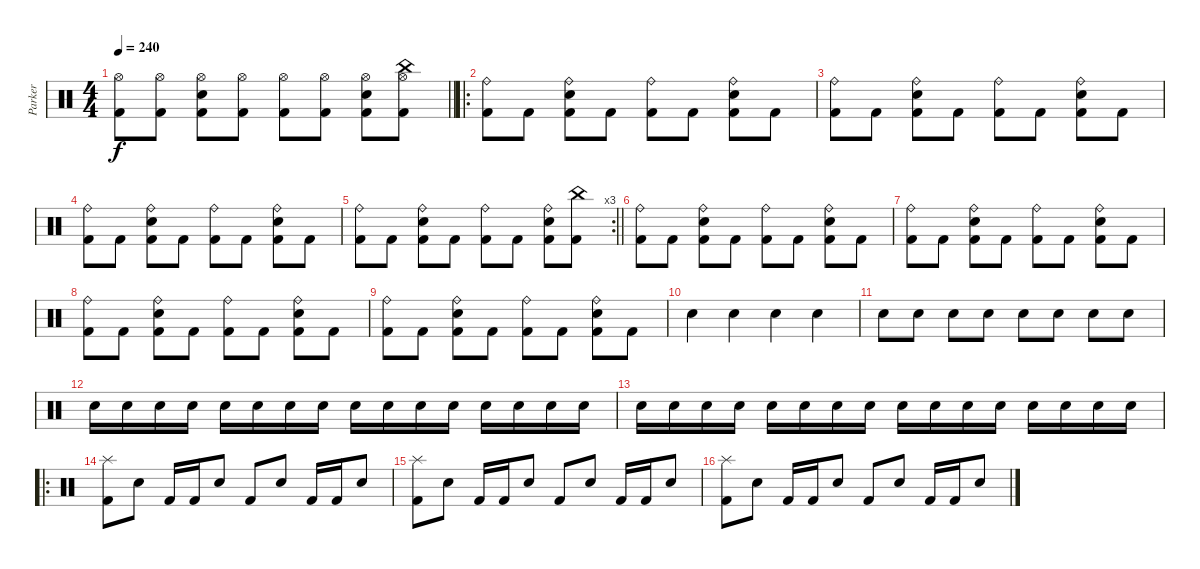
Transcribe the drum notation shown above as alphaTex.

\track ("Parker" "Parker") {instrument percussion}
\staff {score}
\articulation defaults
\ts (4 4)
\tempo 240
\clef neutral
\barLineRight lightlight
\ks c
("Hi-Hat (open)" "Kick (hit) 2").8{dy f} ("Hi-Hat (open)" "Kick (hit) 2").8 ("Hi-Hat (open)" "Electric Snare (hit)" "Kick (hit) 2").8 ("Hi-Hat (open)" "Kick (hit) 2").8 ("Hi-Hat (open)" "Kick (hit) 2").8 ("Hi-Hat (open)" "Kick (hit) 2").8 ("Hi-Hat (open)" "Electric Snare (hit)" "Kick (hit) 2").8 ("China (hit)" "Hi-Hat (open)" "Kick (hit) 2").8 |
\ro
("Ride (bell)" "Kick (hit) 2").8 "Kick (hit) 2".8 ("Ride (bell)" "Electric Snare (hit)" "Kick (hit) 2").8 "Kick (hit) 2".8 ("Ride (bell)" "Kick (hit) 2").8 "Kick (hit) 2".8 ("Ride (bell)" "Electric Snare (hit)" "Kick (hit) 2").8 "Kick (hit) 2".8 |
("Ride (bell)" "Kick (hit) 2").8 "Kick (hit) 2".8 ("Ride (bell)" "Electric Snare (hit)" "Kick (hit) 2").8 "Kick (hit) 2".8 ("Ride (bell)" "Kick (hit) 2").8 "Kick (hit) 2".8 ("Ride (bell)" "Electric Snare (hit)" "Kick (hit) 2").8 "Kick (hit) 2".8 |
("Ride (bell)" "Kick (hit) 2").8 "Kick (hit) 2".8 ("Ride (bell)" "Electric Snare (hit)" "Kick (hit) 2").8 "Kick (hit) 2".8 ("Ride (bell)" "Kick (hit) 2").8 "Kick (hit) 2".8 ("Ride (bell)" "Electric Snare (hit)" "Kick (hit) 2").8 "Kick (hit) 2".8 |
\rc 3
\barLineRight lightlight
("Ride (bell)" "Kick (hit) 2").8 "Kick (hit) 2".8 ("Ride (bell)" "Electric Snare (hit)" "Kick (hit) 2").8 "Kick (hit) 2".8 ("Ride (bell)" "Kick (hit) 2").8 "Kick (hit) 2".8 ("Ride (bell)" "Electric Snare (hit)" "Kick (hit) 2").8 ("China (hit)" "Kick (hit) 2").8 |
("Ride (bell)" "Kick (hit) 2").8 "Kick (hit) 2".8 ("Ride (bell)" "Electric Snare (hit)" "Kick (hit) 2").8 "Kick (hit) 2".8 ("Ride (bell)" "Kick (hit) 2").8 "Kick (hit) 2".8 ("Ride (bell)" "Electric Snare (hit)" "Kick (hit) 2").8 "Kick (hit) 2".8 |
("Ride (bell)" "Kick (hit) 2").8 "Kick (hit) 2".8 ("Ride (bell)" "Electric Snare (hit)" "Kick (hit) 2").8 "Kick (hit) 2".8 ("Ride (bell)" "Kick (hit) 2").8 "Kick (hit) 2".8 ("Ride (bell)" "Electric Snare (hit)" "Kick (hit) 2").8 "Kick (hit) 2".8 |
("Ride (bell)" "Kick (hit) 2").8 "Kick (hit) 2".8 ("Ride (bell)" "Electric Snare (hit)" "Kick (hit) 2").8 "Kick (hit) 2".8 ("Ride (bell)" "Kick (hit) 2").8 "Kick (hit) 2".8 ("Ride (bell)" "Electric Snare (hit)" "Kick (hit) 2").8 "Kick (hit) 2".8 |
("Ride (bell)" "Kick (hit) 2").8 "Kick (hit) 2".8 ("Ride (bell)" "Electric Snare (hit)" "Kick (hit) 2").8 "Kick (hit) 2".8 ("Ride (bell)" "Kick (hit) 2").8 "Kick (hit) 2".8 ("Ride (bell)" "Electric Snare (hit)" "Kick (hit) 2").8 "Kick (hit) 2".8 |
"Electric Snare (hit)".4 "Electric Snare (hit)".4 "Electric Snare (hit)".4 "Electric Snare (hit)".4 |
"Electric Snare (hit)".8 "Electric Snare (hit)".8 "Electric Snare (hit)".8 "Electric Snare (hit)".8 "Electric Snare (hit)".8 "Electric Snare (hit)".8 "Electric Snare (hit)".8 "Electric Snare (hit)".8 |
"Electric Snare (hit)".16 "Electric Snare (hit)".16 "Electric Snare (hit)".16 "Electric Snare (hit)".16 "Electric Snare (hit)".16 "Electric Snare (hit)".16 "Electric Snare (hit)".16 "Electric Snare (hit)".16 "Electric Snare (hit)".16 "Electric Snare (hit)".16 "Electric Snare (hit)".16 "Electric Snare (hit)".16 "Electric Snare (hit)".16 "Electric Snare (hit)".16 "Electric Snare (hit)".16 "Electric Snare (hit)".16 |
"Electric Snare (hit)".16 "Electric Snare (hit)".16 "Electric Snare (hit)".16 "Electric Snare (hit)".16 "Electric Snare (hit)".16 "Electric Snare (hit)".16 "Electric Snare (hit)".16 "Electric Snare (hit)".16 "Electric Snare (hit)".16 "Electric Snare (hit)".16 "Electric Snare (hit)".16 "Electric Snare (hit)".16 "Electric Snare (hit)".16 "Electric Snare (hit)".16 "Electric Snare (hit)".16 "Electric Snare (hit)".16 |
\ro
("Splash (hit)" "Kick (hit) 2").8 "Electric Snare (hit)".8 "Kick (hit) 2".16 "Kick (hit) 2".16 "Electric Snare (hit)".8 "Kick (hit) 2".8 "Electric Snare (hit)".8 "Kick (hit) 2".16 "Kick (hit) 2".16 "Electric Snare (hit)".8 |
("Splash (hit)" "Kick (hit) 2").8 "Electric Snare (hit)".8 "Kick (hit) 2".16 "Kick (hit) 2".16 "Electric Snare (hit)".8 "Kick (hit) 2".8 "Electric Snare (hit)".8 "Kick (hit) 2".16 "Kick (hit) 2".16 "Electric Snare (hit)".8 |
("Splash (hit)" "Kick (hit) 2").8 "Electric Snare (hit)".8 "Kick (hit) 2".16 "Kick (hit) 2".16 "Electric Snare (hit)".8 "Kick (hit) 2".8 "Electric Snare (hit)".8 "Kick (hit) 2".16 "Kick (hit) 2".16 "Electric Snare (hit)".8
